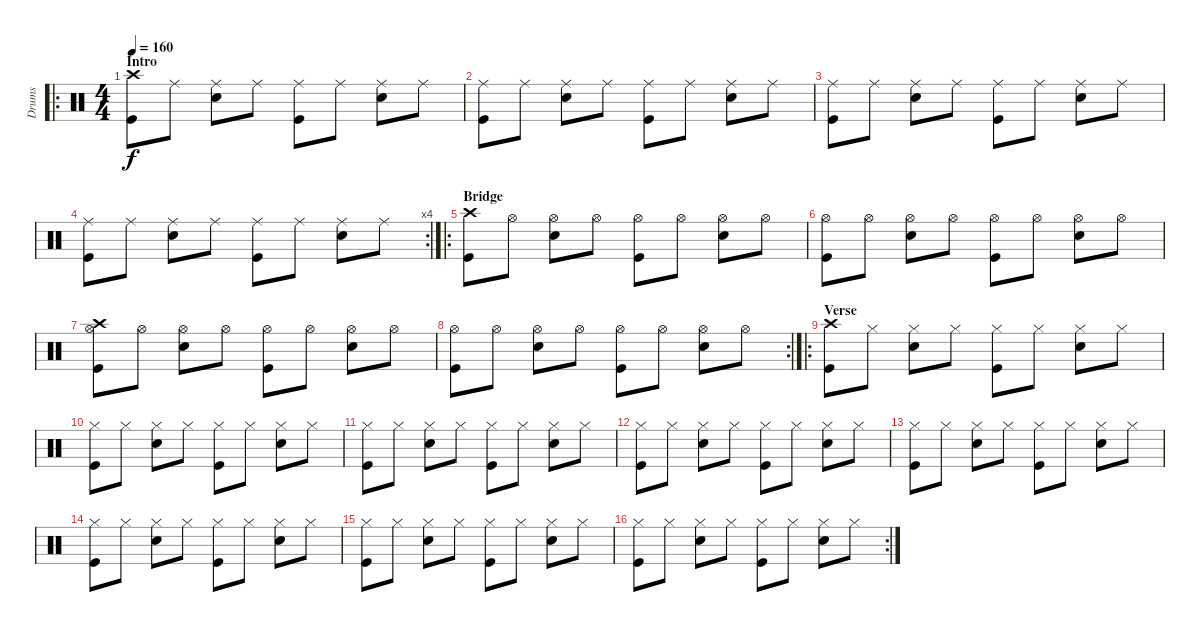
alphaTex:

\track ("Drums" "Drums") {instrument percussion}
\staff {score}
\articulation defaults
\ro
\ts (4 4)
\section ("" "Intro")
\tempo 160
\clef neutral
\ks c
("Crash high (hit)" "Kick (hit)").8{dy f} "Ride (middle)".8 ("Ride (middle)" "Snare (hit) 2").8 "Ride (middle)".8 ("Ride (middle)" "Kick (hit)").8 "Ride (middle)".8 ("Ride (middle)" "Snare (hit) 2").8 "Ride (middle)".8 |
("Ride (middle)" "Kick (hit)").8 "Ride (middle)".8 ("Ride (middle)" "Snare (hit) 2").8 "Ride (middle)".8 ("Ride (middle)" "Kick (hit)").8 "Ride (middle)".8 ("Ride (middle)" "Snare (hit) 2").8 "Ride (middle)".8 |
("Ride (middle)" "Kick (hit)").8 "Ride (middle)".8 ("Ride (middle)" "Snare (hit) 2").8 "Ride (middle)".8 ("Ride (middle)" "Kick (hit)").8 "Ride (middle)".8 ("Ride (middle)" "Snare (hit) 2").8 "Ride (middle)".8 |
\rc 4
("Ride (middle)" "Kick (hit)").8 "Ride (middle)".8 ("Ride (middle)" "Snare (hit) 2").8 "Ride (middle)".8 ("Ride (middle)" "Kick (hit)").8 "Ride (middle)".8 ("Ride (middle)" "Snare (hit) 2").8 "Ride (middle)".8 |
\ro
\section ("" "Bridge")
("Crash high (hit)" "Kick (hit)").8 "Hi-Hat (open)".8 ("Hi-Hat (open)" "Snare (hit) 2").8 "Hi-Hat (open)".8 ("Hi-Hat (open)" "Kick (hit)").8 "Hi-Hat (open)".8 ("Hi-Hat (open)" "Snare (hit) 2").8 "Hi-Hat (open)".8 |
("Hi-Hat (open)" "Kick (hit)").8 "Hi-Hat (open)".8 ("Hi-Hat (open)" "Snare (hit) 2").8 "Hi-Hat (open)".8 ("Hi-Hat (open)" "Kick (hit)").8 "Hi-Hat (open)".8 ("Hi-Hat (open)" "Snare (hit) 2").8 "Hi-Hat (open)".8 |
("Crash high (hit)" "Hi-Hat (open)" "Kick (hit)").8 "Hi-Hat (open)".8 ("Hi-Hat (open)" "Snare (hit) 2").8 "Hi-Hat (open)".8 ("Hi-Hat (open)" "Kick (hit)").8 "Hi-Hat (open)".8 ("Hi-Hat (open)" "Snare (hit) 2").8 "Hi-Hat (open)".8 |
\rc 2
("Hi-Hat (open)" "Kick (hit)").8 "Hi-Hat (open)".8 ("Hi-Hat (open)" "Snare (hit) 2").8 "Hi-Hat (open)".8 ("Hi-Hat (open)" "Kick (hit)").8 "Hi-Hat (open)".8 ("Hi-Hat (open)" "Snare (hit) 2").8 "Hi-Hat (open)".8 |
\ro
\section ("" "Verse")
("Crash high (hit)" "Kick (hit)").8 "Hi-Hat (closed)".8 ("Hi-Hat (closed)" "Snare (hit) 2").8 "Hi-Hat (closed)".8 ("Hi-Hat (closed)" "Kick (hit)").8 "Hi-Hat (closed)".8 ("Hi-Hat (closed)" "Snare (hit) 2").8 "Hi-Hat (closed)".8 |
("Hi-Hat (closed)" "Kick (hit)").8 "Hi-Hat (closed)".8 ("Hi-Hat (closed)" "Snare (hit) 2").8 "Hi-Hat (closed)".8 ("Hi-Hat (closed)" "Kick (hit)").8 "Hi-Hat (closed)".8 ("Hi-Hat (closed)" "Snare (hit) 2").8 "Hi-Hat (closed)".8 |
("Hi-Hat (closed)" "Kick (hit)").8 "Hi-Hat (closed)".8 ("Hi-Hat (closed)" "Snare (hit) 2").8 "Hi-Hat (closed)".8 ("Hi-Hat (closed)" "Kick (hit)").8 "Hi-Hat (closed)".8 ("Hi-Hat (closed)" "Snare (hit) 2").8 "Hi-Hat (closed)".8 |
("Hi-Hat (closed)" "Kick (hit)").8 "Hi-Hat (closed)".8 ("Hi-Hat (closed)" "Snare (hit) 2").8 "Hi-Hat (closed)".8 ("Hi-Hat (closed)" "Kick (hit)").8 "Hi-Hat (closed)".8 ("Hi-Hat (closed)" "Snare (hit) 2").8 "Hi-Hat (closed)".8 |
("Hi-Hat (closed)" "Kick (hit)").8 "Hi-Hat (closed)".8 ("Hi-Hat (closed)" "Snare (hit) 2").8 "Hi-Hat (closed)".8 ("Hi-Hat (closed)" "Kick (hit)").8 "Hi-Hat (closed)".8 ("Hi-Hat (closed)" "Snare (hit) 2").8 "Hi-Hat (closed)".8 |
("Hi-Hat (closed)" "Kick (hit)").8 "Hi-Hat (closed)".8 ("Hi-Hat (closed)" "Snare (hit) 2").8 "Hi-Hat (closed)".8 ("Hi-Hat (closed)" "Kick (hit)").8 "Hi-Hat (closed)".8 ("Hi-Hat (closed)" "Snare (hit) 2").8 "Hi-Hat (closed)".8 |
("Hi-Hat (closed)" "Kick (hit)").8 "Hi-Hat (closed)".8 ("Hi-Hat (closed)" "Snare (hit) 2").8 "Hi-Hat (closed)".8 ("Hi-Hat (closed)" "Kick (hit)").8 "Hi-Hat (closed)".8 ("Hi-Hat (closed)" "Snare (hit) 2").8 "Hi-Hat (closed)".8 |
\rc 2
("Hi-Hat (closed)" "Kick (hit)").8 "Hi-Hat (closed)".8 ("Hi-Hat (closed)" "Snare (hit) 2").8 "Hi-Hat (closed)".8 ("Hi-Hat (closed)" "Kick (hit)").8 "Hi-Hat (closed)".8 ("Hi-Hat (closed)" "Snare (hit) 2").8 "Hi-Hat (closed)".8
